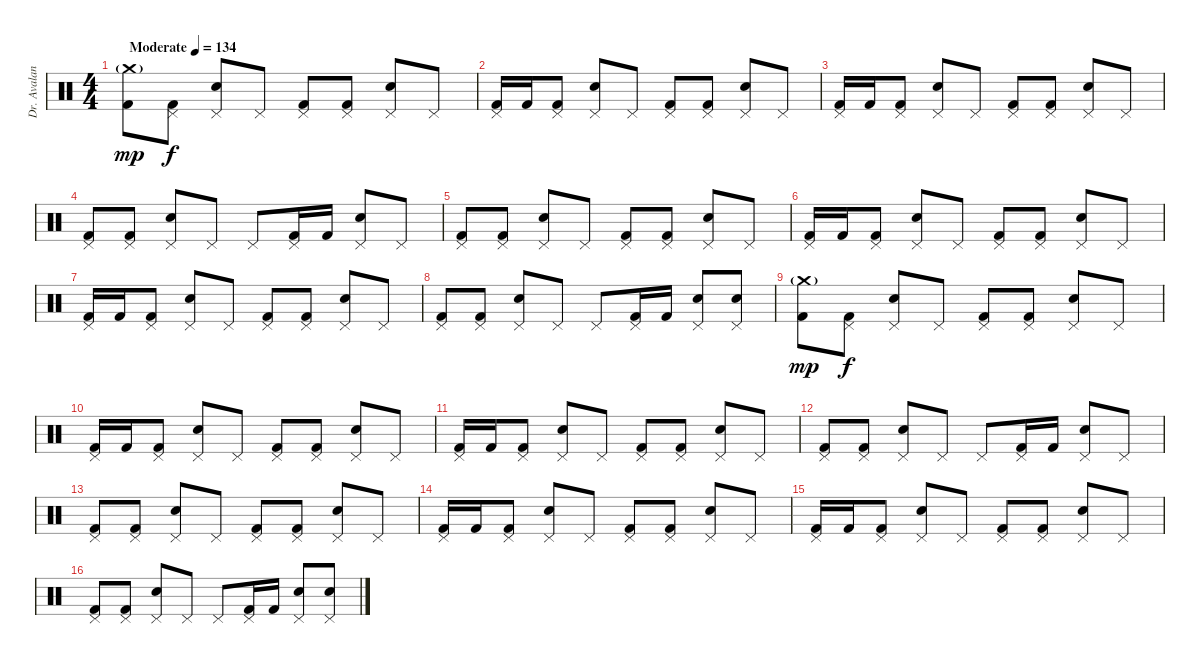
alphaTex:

\track ("Dr. Avalanche" "Dr. Avalan") {instrument percussion}
\staff {score}
\articulation defaults
\ts (4 4)
\tempo (134 "Moderate")
\clef neutral
\ks c
("Crash medium (hit)"{g} "Kick (hit) 2").8{dy mp} ("Pedal Hi-Hat (hit)" "Kick (hit) 2").8{dy f} ("Pedal Hi-Hat (hit)" "Electric Snare (hit)").8 "Pedal Hi-Hat (hit)".8 ("Pedal Hi-Hat (hit)" "Kick (hit) 2").8 ("Pedal Hi-Hat (hit)" "Kick (hit) 2").8 ("Pedal Hi-Hat (hit)" "Electric Snare (hit)").8 "Pedal Hi-Hat (hit)".8 |
("Pedal Hi-Hat (hit)" "Kick (hit) 2").16 "Kick (hit) 2".16 ("Pedal Hi-Hat (hit)" "Kick (hit) 2").8 ("Pedal Hi-Hat (hit)" "Electric Snare (hit)").8 "Pedal Hi-Hat (hit)".8 ("Pedal Hi-Hat (hit)" "Kick (hit) 2").8 ("Pedal Hi-Hat (hit)" "Kick (hit) 2").8 ("Pedal Hi-Hat (hit)" "Electric Snare (hit)").8 "Pedal Hi-Hat (hit)".8 |
("Pedal Hi-Hat (hit)" "Kick (hit) 2").16 "Kick (hit) 2".16 ("Pedal Hi-Hat (hit)" "Kick (hit) 2").8 ("Pedal Hi-Hat (hit)" "Electric Snare (hit)").8 "Pedal Hi-Hat (hit)".8 ("Pedal Hi-Hat (hit)" "Kick (hit) 2").8 ("Pedal Hi-Hat (hit)" "Kick (hit) 2").8 ("Pedal Hi-Hat (hit)" "Electric Snare (hit)").8 "Pedal Hi-Hat (hit)".8 |
("Pedal Hi-Hat (hit)" "Kick (hit) 2").8 ("Pedal Hi-Hat (hit)" "Kick (hit) 2").8 ("Pedal Hi-Hat (hit)" "Electric Snare (hit)").8 "Pedal Hi-Hat (hit)".8 "Pedal Hi-Hat (hit)".8 ("Pedal Hi-Hat (hit)" "Kick (hit) 2").16 "Kick (hit) 2".16 ("Pedal Hi-Hat (hit)" "Electric Snare (hit)").8 "Pedal Hi-Hat (hit)".8 |
("Pedal Hi-Hat (hit)" "Kick (hit) 2").8 ("Pedal Hi-Hat (hit)" "Kick (hit) 2").8 ("Pedal Hi-Hat (hit)" "Electric Snare (hit)").8 "Pedal Hi-Hat (hit)".8 ("Pedal Hi-Hat (hit)" "Kick (hit) 2").8 ("Pedal Hi-Hat (hit)" "Kick (hit) 2").8 ("Pedal Hi-Hat (hit)" "Electric Snare (hit)").8 "Pedal Hi-Hat (hit)".8 |
("Pedal Hi-Hat (hit)" "Kick (hit) 2").16 "Kick (hit) 2".16 ("Pedal Hi-Hat (hit)" "Kick (hit) 2").8 ("Pedal Hi-Hat (hit)" "Electric Snare (hit)").8 "Pedal Hi-Hat (hit)".8 ("Pedal Hi-Hat (hit)" "Kick (hit) 2").8 ("Pedal Hi-Hat (hit)" "Kick (hit) 2").8 ("Pedal Hi-Hat (hit)" "Electric Snare (hit)").8 "Pedal Hi-Hat (hit)".8 |
("Pedal Hi-Hat (hit)" "Kick (hit) 2").16 "Kick (hit) 2".16 ("Pedal Hi-Hat (hit)" "Kick (hit) 2").8 ("Pedal Hi-Hat (hit)" "Electric Snare (hit)").8 "Pedal Hi-Hat (hit)".8 ("Pedal Hi-Hat (hit)" "Kick (hit) 2").8 ("Pedal Hi-Hat (hit)" "Kick (hit) 2").8 ("Pedal Hi-Hat (hit)" "Electric Snare (hit)").8 "Pedal Hi-Hat (hit)".8 |
("Pedal Hi-Hat (hit)" "Kick (hit) 2").8 ("Pedal Hi-Hat (hit)" "Kick (hit) 2").8 ("Pedal Hi-Hat (hit)" "Electric Snare (hit)").8 "Pedal Hi-Hat (hit)".8 "Pedal Hi-Hat (hit)".8 ("Pedal Hi-Hat (hit)" "Kick (hit) 2").16 "Kick (hit) 2".16 ("Pedal Hi-Hat (hit)" "Electric Snare (hit)").8 ("Pedal Hi-Hat (hit)" "Electric Snare (hit)").8 |
("Crash medium (hit)"{g} "Kick (hit) 2").8{dy mp} ("Pedal Hi-Hat (hit)" "Kick (hit) 2").8{dy f} ("Pedal Hi-Hat (hit)" "Electric Snare (hit)").8 "Pedal Hi-Hat (hit)".8 ("Pedal Hi-Hat (hit)" "Kick (hit) 2").8 ("Pedal Hi-Hat (hit)" "Kick (hit) 2").8 ("Pedal Hi-Hat (hit)" "Electric Snare (hit)").8 "Pedal Hi-Hat (hit)".8 |
("Pedal Hi-Hat (hit)" "Kick (hit) 2").16 "Kick (hit) 2".16 ("Pedal Hi-Hat (hit)" "Kick (hit) 2").8 ("Pedal Hi-Hat (hit)" "Electric Snare (hit)").8 "Pedal Hi-Hat (hit)".8 ("Pedal Hi-Hat (hit)" "Kick (hit) 2").8 ("Pedal Hi-Hat (hit)" "Kick (hit) 2").8 ("Pedal Hi-Hat (hit)" "Electric Snare (hit)").8 "Pedal Hi-Hat (hit)".8 |
("Pedal Hi-Hat (hit)" "Kick (hit) 2").16 "Kick (hit) 2".16 ("Pedal Hi-Hat (hit)" "Kick (hit) 2").8 ("Pedal Hi-Hat (hit)" "Electric Snare (hit)").8 "Pedal Hi-Hat (hit)".8 ("Pedal Hi-Hat (hit)" "Kick (hit) 2").8 ("Pedal Hi-Hat (hit)" "Kick (hit) 2").8 ("Pedal Hi-Hat (hit)" "Electric Snare (hit)").8 "Pedal Hi-Hat (hit)".8 |
("Pedal Hi-Hat (hit)" "Kick (hit) 2").8 ("Pedal Hi-Hat (hit)" "Kick (hit) 2").8 ("Pedal Hi-Hat (hit)" "Electric Snare (hit)").8 "Pedal Hi-Hat (hit)".8 "Pedal Hi-Hat (hit)".8 ("Pedal Hi-Hat (hit)" "Kick (hit) 2").16 "Kick (hit) 2".16 ("Pedal Hi-Hat (hit)" "Electric Snare (hit)").8 "Pedal Hi-Hat (hit)".8 |
("Pedal Hi-Hat (hit)" "Kick (hit) 2").8 ("Pedal Hi-Hat (hit)" "Kick (hit) 2").8 ("Pedal Hi-Hat (hit)" "Electric Snare (hit)").8 "Pedal Hi-Hat (hit)".8 ("Pedal Hi-Hat (hit)" "Kick (hit) 2").8 ("Pedal Hi-Hat (hit)" "Kick (hit) 2").8 ("Pedal Hi-Hat (hit)" "Electric Snare (hit)").8 "Pedal Hi-Hat (hit)".8 |
("Pedal Hi-Hat (hit)" "Kick (hit) 2").16 "Kick (hit) 2".16 ("Pedal Hi-Hat (hit)" "Kick (hit) 2").8 ("Pedal Hi-Hat (hit)" "Electric Snare (hit)").8 "Pedal Hi-Hat (hit)".8 ("Pedal Hi-Hat (hit)" "Kick (hit) 2").8 ("Pedal Hi-Hat (hit)" "Kick (hit) 2").8 ("Pedal Hi-Hat (hit)" "Electric Snare (hit)").8 "Pedal Hi-Hat (hit)".8 |
("Pedal Hi-Hat (hit)" "Kick (hit) 2").16 "Kick (hit) 2".16 ("Pedal Hi-Hat (hit)" "Kick (hit) 2").8 ("Pedal Hi-Hat (hit)" "Electric Snare (hit)").8 "Pedal Hi-Hat (hit)".8 ("Pedal Hi-Hat (hit)" "Kick (hit) 2").8 ("Pedal Hi-Hat (hit)" "Kick (hit) 2").8 ("Pedal Hi-Hat (hit)" "Electric Snare (hit)").8 "Pedal Hi-Hat (hit)".8 |
("Pedal Hi-Hat (hit)" "Kick (hit) 2").8 ("Pedal Hi-Hat (hit)" "Kick (hit) 2").8 ("Pedal Hi-Hat (hit)" "Electric Snare (hit)").8 "Pedal Hi-Hat (hit)".8 "Pedal Hi-Hat (hit)".8 ("Pedal Hi-Hat (hit)" "Kick (hit) 2").16 "Kick (hit) 2".16 ("Pedal Hi-Hat (hit)" "Electric Snare (hit)").8 ("Pedal Hi-Hat (hit)" "Electric Snare (hit)").8
